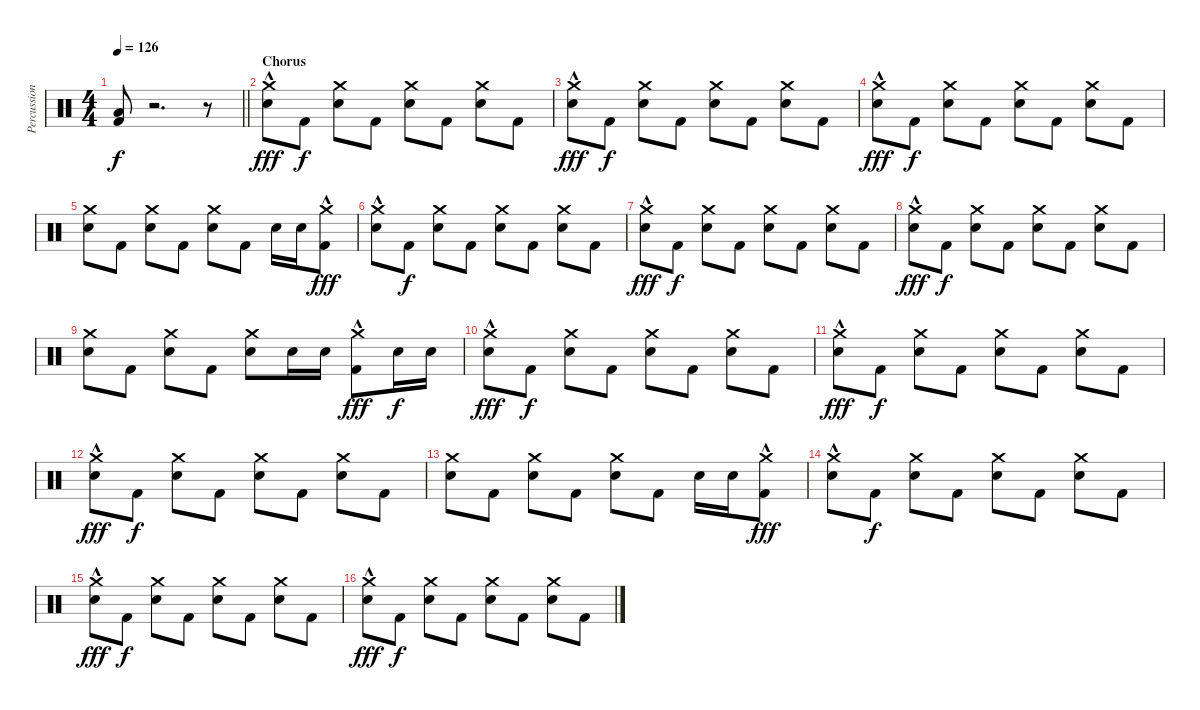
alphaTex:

\track ("Percussion" "Percussion") {instrument percussion}
\staff {score}
\articulation defaults
\ts (4 4)
\tempo 126
\clef neutral
\barLineRight lightlight
\ks c
("Low Floor Tom (hit)" "Kick (hit) 2").8{dy f} r.2{d} r.8 |
\section ("" "Chorus")
("Crash medium (hit)"{hac} "Snare (hit) 2").8{dy fff} "Kick (hit) 2".8{dy f} ("Crash medium (hit)" "Snare (hit) 2").8 "Kick (hit) 2".8 ("Crash medium (hit)" "Snare (hit) 2").8 "Kick (hit) 2".8 ("Crash medium (hit)" "Snare (hit) 2").8 "Kick (hit) 2".8 |
("Crash medium (hit)"{hac} "Snare (hit) 2").8{dy fff} "Kick (hit) 2".8{dy f} ("Crash medium (hit)" "Snare (hit) 2").8 "Kick (hit) 2".8 ("Crash medium (hit)" "Snare (hit) 2").8 "Kick (hit) 2".8 ("Crash medium (hit)" "Snare (hit) 2").8 "Kick (hit) 2".8 |
("Crash medium (hit)"{hac} "Snare (hit) 2").8{dy fff} "Kick (hit) 2".8{dy f} ("Crash medium (hit)" "Snare (hit) 2").8 "Kick (hit) 2".8 ("Crash medium (hit)" "Snare (hit) 2").8 "Kick (hit) 2".8 ("Crash medium (hit)" "Snare (hit) 2").8 "Kick (hit) 2".8 |
("Crash medium (hit)" "Snare (hit) 2").8 "Kick (hit) 2".8 ("Crash medium (hit)" "Snare (hit) 2").8 "Kick (hit) 2".8 ("Crash medium (hit)" "Snare (hit) 2").8 "Kick (hit) 2".8 "Snare (hit) 2".16 "Snare (hit) 2".16 ("Crash medium (hit)"{hac} "Kick (hit) 2").8{dy fff} |
("Crash medium (hit)"{hac} "Snare (hit) 2").8 "Kick (hit) 2".8{dy f} ("Crash medium (hit)" "Snare (hit) 2").8 "Kick (hit) 2".8 ("Crash medium (hit)" "Snare (hit) 2").8 "Kick (hit) 2".8 ("Crash medium (hit)" "Snare (hit) 2").8 "Kick (hit) 2".8 |
("Crash medium (hit)"{hac} "Snare (hit) 2").8{dy fff} "Kick (hit) 2".8{dy f} ("Crash medium (hit)" "Snare (hit) 2").8 "Kick (hit) 2".8 ("Crash medium (hit)" "Snare (hit) 2").8 "Kick (hit) 2".8 ("Crash medium (hit)" "Snare (hit) 2").8 "Kick (hit) 2".8 |
("Crash medium (hit)"{hac} "Snare (hit) 2").8{dy fff} "Kick (hit) 2".8{dy f} ("Crash medium (hit)" "Snare (hit) 2").8 "Kick (hit) 2".8 ("Crash medium (hit)" "Snare (hit) 2").8 "Kick (hit) 2".8 ("Crash medium (hit)" "Snare (hit) 2").8 "Kick (hit) 2".8 |
("Crash medium (hit)" "Snare (hit) 2").8 "Kick (hit) 2".8 ("Crash medium (hit)" "Snare (hit) 2").8 "Kick (hit) 2".8 ("Crash medium (hit)" "Snare (hit) 2").8 "Snare (hit) 2".16 "Snare (hit) 2".16 ("Crash medium (hit)"{hac} "Kick (hit) 2").8{dy fff} "Snare (hit) 2".16{dy f} "Snare (hit) 2".16 |
("Crash medium (hit)"{hac} "Snare (hit) 2").8{dy fff} "Kick (hit) 2".8{dy f} ("Crash medium (hit)" "Snare (hit) 2").8 "Kick (hit) 2".8 ("Crash medium (hit)" "Snare (hit) 2").8 "Kick (hit) 2".8 ("Crash medium (hit)" "Snare (hit) 2").8 "Kick (hit) 2".8 |
("Crash medium (hit)"{hac} "Snare (hit) 2").8{dy fff} "Kick (hit) 2".8{dy f} ("Crash medium (hit)" "Snare (hit) 2").8 "Kick (hit) 2".8 ("Crash medium (hit)" "Snare (hit) 2").8 "Kick (hit) 2".8 ("Crash medium (hit)" "Snare (hit) 2").8 "Kick (hit) 2".8 |
("Crash medium (hit)"{hac} "Snare (hit) 2").8{dy fff} "Kick (hit) 2".8{dy f} ("Crash medium (hit)" "Snare (hit) 2").8 "Kick (hit) 2".8 ("Crash medium (hit)" "Snare (hit) 2").8 "Kick (hit) 2".8 ("Crash medium (hit)" "Snare (hit) 2").8 "Kick (hit) 2".8 |
("Crash medium (hit)" "Snare (hit) 2").8 "Kick (hit) 2".8 ("Crash medium (hit)" "Snare (hit) 2").8 "Kick (hit) 2".8 ("Crash medium (hit)" "Snare (hit) 2").8 "Kick (hit) 2".8 "Snare (hit) 2".16 "Snare (hit) 2".16 ("Crash medium (hit)"{hac} "Kick (hit) 2").8{dy fff} |
("Crash medium (hit)"{hac} "Snare (hit) 2").8 "Kick (hit) 2".8{dy f} ("Crash medium (hit)" "Snare (hit) 2").8 "Kick (hit) 2".8 ("Crash medium (hit)" "Snare (hit) 2").8 "Kick (hit) 2".8 ("Crash medium (hit)" "Snare (hit) 2").8 "Kick (hit) 2".8 |
("Crash medium (hit)"{hac} "Snare (hit) 2").8{dy fff} "Kick (hit) 2".8{dy f} ("Crash medium (hit)" "Snare (hit) 2").8 "Kick (hit) 2".8 ("Crash medium (hit)" "Snare (hit) 2").8 "Kick (hit) 2".8 ("Crash medium (hit)" "Snare (hit) 2").8 "Kick (hit) 2".8 |
("Crash medium (hit)"{hac} "Snare (hit) 2").8{dy fff} "Kick (hit) 2".8{dy f} ("Crash medium (hit)" "Snare (hit) 2").8 "Kick (hit) 2".8 ("Crash medium (hit)" "Snare (hit) 2").8 "Kick (hit) 2".8 ("Crash medium (hit)" "Snare (hit) 2").8 "Kick (hit) 2".8
